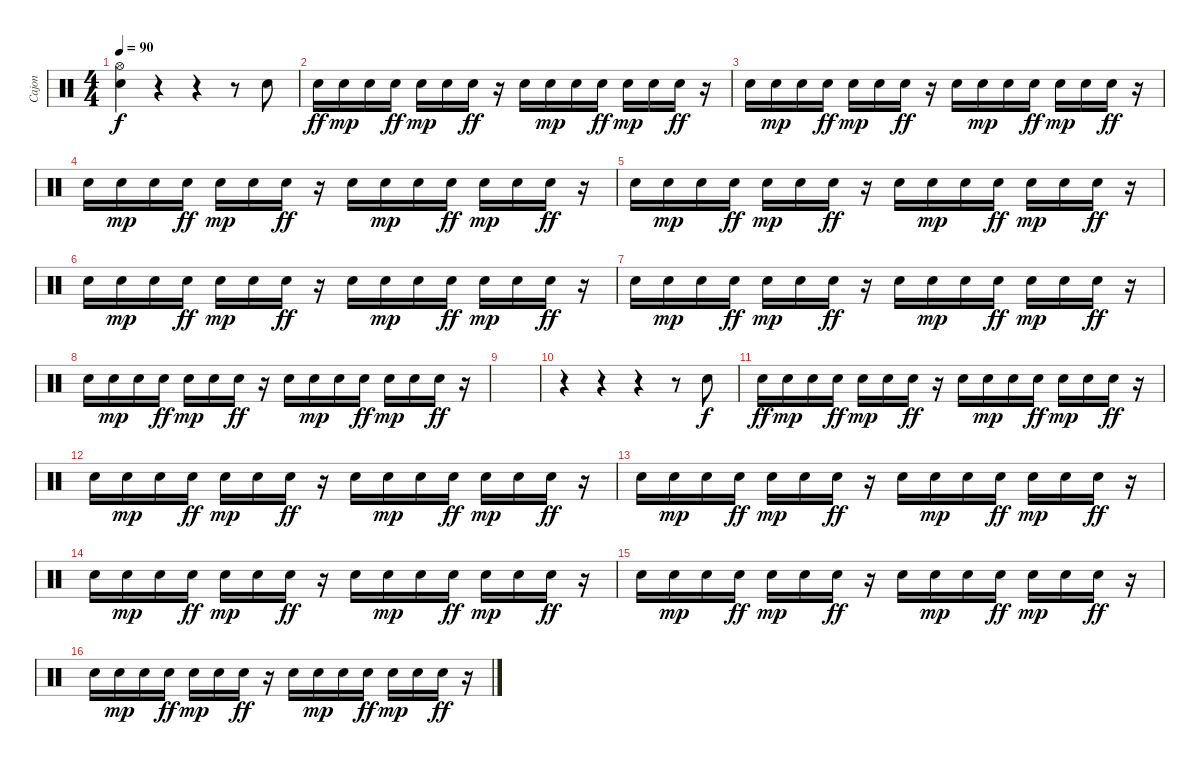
\track ("Cajon" "Cajon") {instrument percussion}
\staff {score}
\articulation defaults
\ts (4 4)
\tempo 90
\clef neutral
\ks c
("Hi-Hat (open)" "Snare (hit) 2").4{dy f} r.4 r.4 r.8 "Electric Snare (hit)".8 |
"Snare (hit) 2".16{dy ff} "Electric Snare (hit)".16{dy mp} "Electric Snare (hit)".16 "Electric Snare (hit)".16{dy ff} "Electric Snare (hit)".16{dy mp} "Electric Snare (hit)".16 "Electric Snare (hit)".16{dy ff} r.16 "Snare (hit) 2".16 "Electric Snare (hit)".16{dy mp} "Electric Snare (hit)".16 "Electric Snare (hit)".16{dy ff} "Electric Snare (hit)".16{dy mp} "Electric Snare (hit)".16 "Electric Snare (hit)".16{dy ff} r.16 |
"Snare (hit) 2".16 "Electric Snare (hit)".16{dy mp} "Electric Snare (hit)".16 "Electric Snare (hit)".16{dy ff} "Electric Snare (hit)".16{dy mp} "Electric Snare (hit)".16 "Electric Snare (hit)".16{dy ff} r.16 "Snare (hit) 2".16 "Electric Snare (hit)".16{dy mp} "Electric Snare (hit)".16 "Electric Snare (hit)".16{dy ff} "Electric Snare (hit)".16{dy mp} "Electric Snare (hit)".16 "Electric Snare (hit)".16{dy ff} r.16 |
"Snare (hit) 2".16 "Electric Snare (hit)".16{dy mp} "Electric Snare (hit)".16 "Electric Snare (hit)".16{dy ff} "Electric Snare (hit)".16{dy mp} "Electric Snare (hit)".16 "Electric Snare (hit)".16{dy ff} r.16 "Snare (hit) 2".16 "Electric Snare (hit)".16{dy mp} "Electric Snare (hit)".16 "Electric Snare (hit)".16{dy ff} "Electric Snare (hit)".16{dy mp} "Electric Snare (hit)".16 "Electric Snare (hit)".16{dy ff} r.16 |
"Snare (hit) 2".16 "Electric Snare (hit)".16{dy mp} "Electric Snare (hit)".16 "Electric Snare (hit)".16{dy ff} "Electric Snare (hit)".16{dy mp} "Electric Snare (hit)".16 "Electric Snare (hit)".16{dy ff} r.16 "Snare (hit) 2".16 "Electric Snare (hit)".16{dy mp} "Electric Snare (hit)".16 "Electric Snare (hit)".16{dy ff} "Electric Snare (hit)".16{dy mp} "Electric Snare (hit)".16 "Electric Snare (hit)".16{dy ff} r.16 |
"Snare (hit) 2".16 "Electric Snare (hit)".16{dy mp} "Electric Snare (hit)".16 "Electric Snare (hit)".16{dy ff} "Electric Snare (hit)".16{dy mp} "Electric Snare (hit)".16 "Electric Snare (hit)".16{dy ff} r.16 "Snare (hit) 2".16 "Electric Snare (hit)".16{dy mp} "Electric Snare (hit)".16 "Electric Snare (hit)".16{dy ff} "Electric Snare (hit)".16{dy mp} "Electric Snare (hit)".16 "Electric Snare (hit)".16{dy ff} r.16 |
"Snare (hit) 2".16 "Electric Snare (hit)".16{dy mp} "Electric Snare (hit)".16 "Electric Snare (hit)".16{dy ff} "Electric Snare (hit)".16{dy mp} "Electric Snare (hit)".16 "Electric Snare (hit)".16{dy ff} r.16 "Snare (hit) 2".16 "Electric Snare (hit)".16{dy mp} "Electric Snare (hit)".16 "Electric Snare (hit)".16{dy ff} "Electric Snare (hit)".16{dy mp} "Electric Snare (hit)".16 "Electric Snare (hit)".16{dy ff} r.16 |
"Snare (hit) 2".16 "Electric Snare (hit)".16{dy mp} "Electric Snare (hit)".16 "Electric Snare (hit)".16{dy ff} "Electric Snare (hit)".16{dy mp} "Electric Snare (hit)".16 "Electric Snare (hit)".16{dy ff} r.16 "Snare (hit) 2".16 "Electric Snare (hit)".16{dy mp} "Electric Snare (hit)".16 "Electric Snare (hit)".16{dy ff} "Electric Snare (hit)".16{dy mp} "Electric Snare (hit)".16 "Electric Snare (hit)".16{dy ff} r.16 |
|
r.4 r.4 r.4 r.8 "Snare (hit) 2".8{dy f} |
"Snare (hit) 2".16{dy ff} "Electric Snare (hit)".16{dy mp} "Electric Snare (hit)".16 "Electric Snare (hit)".16{dy ff} "Electric Snare (hit)".16{dy mp} "Electric Snare (hit)".16 "Electric Snare (hit)".16{dy ff} r.16 "Snare (hit) 2".16 "Electric Snare (hit)".16{dy mp} "Electric Snare (hit)".16 "Electric Snare (hit)".16{dy ff} "Electric Snare (hit)".16{dy mp} "Electric Snare (hit)".16 "Electric Snare (hit)".16{dy ff} r.16 |
"Snare (hit) 2".16 "Electric Snare (hit)".16{dy mp} "Electric Snare (hit)".16 "Electric Snare (hit)".16{dy ff} "Electric Snare (hit)".16{dy mp} "Electric Snare (hit)".16 "Electric Snare (hit)".16{dy ff} r.16 "Snare (hit) 2".16 "Electric Snare (hit)".16{dy mp} "Electric Snare (hit)".16 "Electric Snare (hit)".16{dy ff} "Electric Snare (hit)".16{dy mp} "Electric Snare (hit)".16 "Electric Snare (hit)".16{dy ff} r.16 |
"Snare (hit) 2".16 "Electric Snare (hit)".16{dy mp} "Electric Snare (hit)".16 "Electric Snare (hit)".16{dy ff} "Electric Snare (hit)".16{dy mp} "Electric Snare (hit)".16 "Electric Snare (hit)".16{dy ff} r.16 "Snare (hit) 2".16 "Electric Snare (hit)".16{dy mp} "Electric Snare (hit)".16 "Electric Snare (hit)".16{dy ff} "Electric Snare (hit)".16{dy mp} "Electric Snare (hit)".16 "Electric Snare (hit)".16{dy ff} r.16 |
"Snare (hit) 2".16 "Electric Snare (hit)".16{dy mp} "Electric Snare (hit)".16 "Electric Snare (hit)".16{dy ff} "Electric Snare (hit)".16{dy mp} "Electric Snare (hit)".16 "Electric Snare (hit)".16{dy ff} r.16 "Snare (hit) 2".16 "Electric Snare (hit)".16{dy mp} "Electric Snare (hit)".16 "Electric Snare (hit)".16{dy ff} "Electric Snare (hit)".16{dy mp} "Electric Snare (hit)".16 "Electric Snare (hit)".16{dy ff} r.16 |
"Snare (hit) 2".16 "Electric Snare (hit)".16{dy mp} "Electric Snare (hit)".16 "Electric Snare (hit)".16{dy ff} "Electric Snare (hit)".16{dy mp} "Electric Snare (hit)".16 "Electric Snare (hit)".16{dy ff} r.16 "Snare (hit) 2".16 "Electric Snare (hit)".16{dy mp} "Electric Snare (hit)".16 "Electric Snare (hit)".16{dy ff} "Electric Snare (hit)".16{dy mp} "Electric Snare (hit)".16 "Electric Snare (hit)".16{dy ff} r.16 |
"Snare (hit) 2".16 "Electric Snare (hit)".16{dy mp} "Electric Snare (hit)".16 "Electric Snare (hit)".16{dy ff} "Electric Snare (hit)".16{dy mp} "Electric Snare (hit)".16 "Electric Snare (hit)".16{dy ff} r.16 "Snare (hit) 2".16 "Electric Snare (hit)".16{dy mp} "Electric Snare (hit)".16 "Electric Snare (hit)".16{dy ff} "Electric Snare (hit)".16{dy mp} "Electric Snare (hit)".16 "Electric Snare (hit)".16{dy ff} r.16
